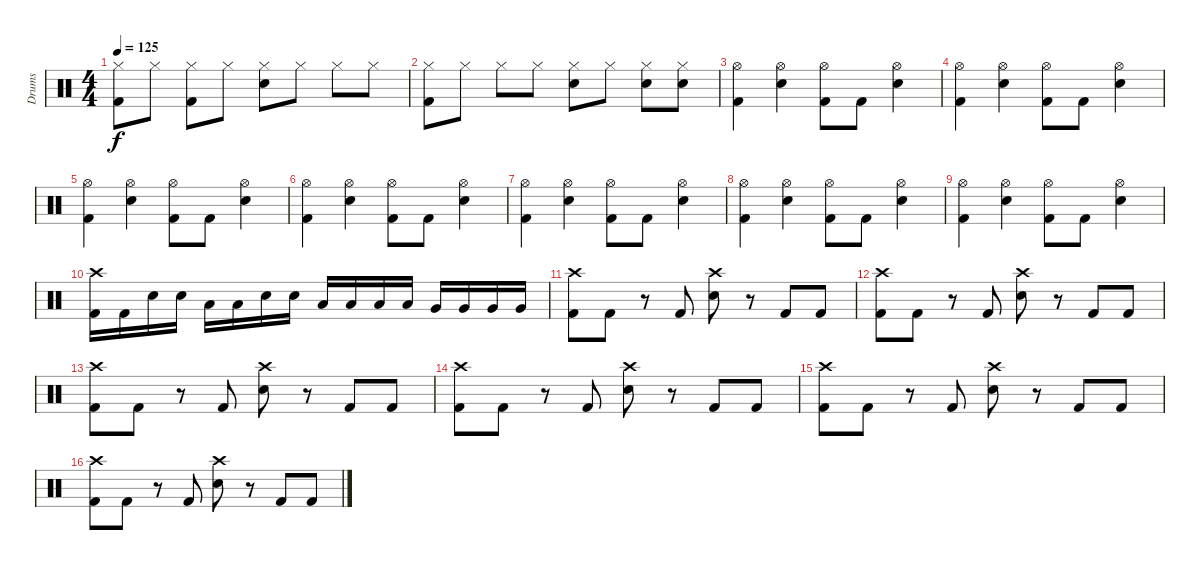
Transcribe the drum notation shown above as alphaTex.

\track ("Drums" "Drums") {instrument percussion}
\staff {score}
\articulation defaults
\ts (4 4)
\tempo 125
\clef neutral
\ks c
("Kick (hit) 2" "Hi-Hat (closed)").8{dy f} "Hi-Hat (closed)".8 ("Kick (hit) 2" "Hi-Hat (closed)").8 "Hi-Hat (closed)".8 ("Snare (hit) 2" "Hi-Hat (closed)").8 "Hi-Hat (closed)".8 "Hi-Hat (closed)".8 "Hi-Hat (closed)".8 |
("Kick (hit) 2" "Hi-Hat (closed)").8 "Hi-Hat (closed)".8 "Hi-Hat (closed)".8 "Hi-Hat (closed)".8 ("Snare (hit) 2" "Hi-Hat (closed)").8 "Hi-Hat (closed)".8 ("Snare (hit) 2" "Hi-Hat (closed)").8 ("Snare (hit) 2" "Hi-Hat (closed)").8 |
("Hi-Hat (open)" "Kick (hit) 2").4 ("Hi-Hat (open)" "Snare (hit) 2").4 ("Hi-Hat (open)" "Kick (hit) 2").8 "Kick (hit) 2".8 ("Hi-Hat (open)" "Snare (hit) 2").4 |
("Hi-Hat (open)" "Kick (hit) 2").4 ("Hi-Hat (open)" "Snare (hit) 2").4 ("Hi-Hat (open)" "Kick (hit) 2").8 "Kick (hit) 2".8 ("Hi-Hat (open)" "Snare (hit) 2").4 |
("Hi-Hat (open)" "Kick (hit) 2").4 ("Hi-Hat (open)" "Snare (hit) 2").4 ("Hi-Hat (open)" "Kick (hit) 2").8 "Kick (hit) 2".8 ("Hi-Hat (open)" "Snare (hit) 2").4 |
("Hi-Hat (open)" "Kick (hit) 2").4 ("Hi-Hat (open)" "Snare (hit) 2").4 ("Hi-Hat (open)" "Kick (hit) 2").8 "Kick (hit) 2".8 ("Hi-Hat (open)" "Snare (hit) 2").4 |
("Hi-Hat (open)" "Kick (hit) 2").4 ("Hi-Hat (open)" "Snare (hit) 2").4 ("Hi-Hat (open)" "Kick (hit) 2").8 "Kick (hit) 2".8 ("Hi-Hat (open)" "Snare (hit) 2").4 |
("Hi-Hat (open)" "Kick (hit) 2").4 ("Hi-Hat (open)" "Snare (hit) 2").4 ("Hi-Hat (open)" "Kick (hit) 2").8 "Kick (hit) 2".8 ("Hi-Hat (open)" "Snare (hit) 2").4 |
("Hi-Hat (open)" "Kick (hit) 2").4 ("Hi-Hat (open)" "Snare (hit) 2").4 ("Hi-Hat (open)" "Kick (hit) 2").8 "Kick (hit) 2".8 ("Hi-Hat (open)" "Snare (hit) 2").4 |
("Crash high (hit)" "Kick (hit) 2").16 "Kick (hit) 2".16 "Snare (hit) 2".16 "Snare (hit) 2".16 "Low Tom (hit)".16 "Low Tom (hit)".16 "Snare (hit) 2".16 "Snare (hit) 2".16 "Low Tom (hit)".16 "Low Tom (hit)".16 "Low Tom (hit)".16 "Low Tom (hit)".16 "Very Low Tom (hit)".16 "Very Low Tom (hit)".16 "Very Low Tom (hit)".16 "Very Low Tom (hit)".16 |
("Crash high (hit)" "Kick (hit) 2").8 "Kick (hit) 2".8 r.8 "Kick (hit) 2".8 ("Crash high (hit)" "Snare (hit) 2").8 r.8 "Kick (hit) 2".8 "Kick (hit) 2".8 |
("Crash high (hit)" "Kick (hit) 2").8 "Kick (hit) 2".8 r.8 "Kick (hit) 2".8 ("Crash high (hit)" "Snare (hit) 2").8 r.8 "Kick (hit) 2".8 "Kick (hit) 2".8 |
("Crash high (hit)" "Kick (hit) 2").8 "Kick (hit) 2".8 r.8 "Kick (hit) 2".8 ("Crash high (hit)" "Snare (hit) 2").8 r.8 "Kick (hit) 2".8 "Kick (hit) 2".8 |
("Crash high (hit)" "Kick (hit) 2").8 "Kick (hit) 2".8 r.8 "Kick (hit) 2".8 ("Crash high (hit)" "Snare (hit) 2").8 r.8 "Kick (hit) 2".8 "Kick (hit) 2".8 |
("Crash high (hit)" "Kick (hit) 2").8 "Kick (hit) 2".8 r.8 "Kick (hit) 2".8 ("Crash high (hit)" "Snare (hit) 2").8 r.8 "Kick (hit) 2".8 "Kick (hit) 2".8 |
("Crash high (hit)" "Kick (hit) 2").8 "Kick (hit) 2".8 r.8 "Kick (hit) 2".8 ("Crash high (hit)" "Snare (hit) 2").8 r.8 "Kick (hit) 2".8 "Kick (hit) 2".8
